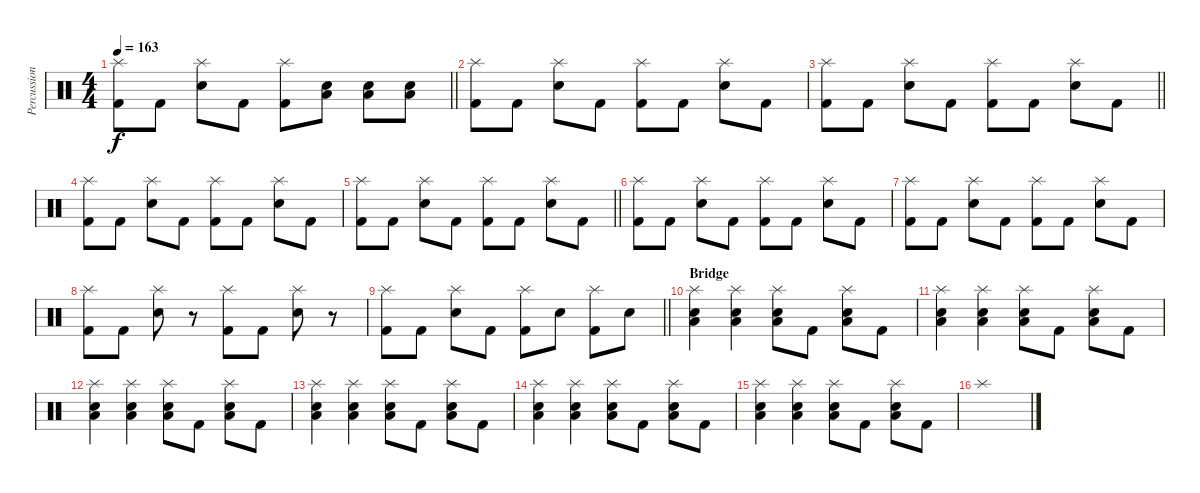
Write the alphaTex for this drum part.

\track ("Percussion" "Percussion") {solo instrument percussion}
\staff {score}
\articulation defaults
\ts (4 4)
\tempo 163
\clef neutral
\barLineRight lightlight
\ks c
("Splash (hit)" "Kick (hit) 2").8{dy f} "Kick (hit) 2".8 ("Splash (hit)" "Snare (hit) 2").8 "Kick (hit) 2".8 ("Splash (hit)" "Kick (hit) 2").8 ("Snare (hit) 2" "Low Floor Tom (hit)").8 ("Snare (hit) 2" "Low Floor Tom (hit)").8 ("Snare (hit) 2" "Low Floor Tom (hit)").8 |
("Splash (hit)" "Kick (hit) 2").8 "Kick (hit) 2".8 ("Splash (hit)" "Snare (hit) 2").8 "Kick (hit) 2".8 ("Splash (hit)" "Kick (hit) 2").8 "Kick (hit) 2".8 ("Splash (hit)" "Snare (hit) 2").8 "Kick (hit) 2".8 |
\barLineRight lightlight
("Splash (hit)" "Kick (hit) 2").8 "Kick (hit) 2".8 ("Splash (hit)" "Snare (hit) 2").8 "Kick (hit) 2".8 ("Splash (hit)" "Kick (hit) 2").8 "Kick (hit) 2".8 ("Splash (hit)" "Snare (hit) 2").8 "Kick (hit) 2".8 |
("Splash (hit)" "Kick (hit) 2").8 "Kick (hit) 2".8 ("Splash (hit)" "Snare (hit) 2").8 "Kick (hit) 2".8 ("Splash (hit)" "Kick (hit) 2").8 "Kick (hit) 2".8 ("Splash (hit)" "Snare (hit) 2").8 "Kick (hit) 2".8 |
\barLineRight lightlight
("Splash (hit)" "Kick (hit) 2").8 "Kick (hit) 2".8 ("Splash (hit)" "Snare (hit) 2").8 "Kick (hit) 2".8 ("Splash (hit)" "Kick (hit) 2").8 "Kick (hit) 2".8 ("Splash (hit)" "Snare (hit) 2").8 "Kick (hit) 2".8 |
("Splash (hit)" "Kick (hit) 2").8 "Kick (hit) 2".8 ("Splash (hit)" "Snare (hit) 2").8 "Kick (hit) 2".8 ("Splash (hit)" "Kick (hit) 2").8 "Kick (hit) 2".8 ("Splash (hit)" "Snare (hit) 2").8 "Kick (hit) 2".8 |
("Splash (hit)" "Kick (hit) 2").8 "Kick (hit) 2".8 ("Splash (hit)" "Snare (hit) 2").8 "Kick (hit) 2".8 ("Splash (hit)" "Kick (hit) 2").8 "Kick (hit) 2".8 ("Splash (hit)" "Snare (hit) 2").8 "Kick (hit) 2".8 |
("Splash (hit)" "Kick (hit) 2").8 "Kick (hit) 2".8 ("Splash (hit)" "Snare (hit) 2").8 r.8 ("Splash (hit)" "Kick (hit) 2").8 "Kick (hit) 2".8 ("Splash (hit)" "Snare (hit) 2").8 r.8 |
\barLineRight lightlight
("Splash (hit)" "Kick (hit) 2").8 "Kick (hit) 2".8 ("Splash (hit)" "Snare (hit) 2").8 "Kick (hit) 2".8 ("Splash (hit)" "Kick (hit) 2").8 "Snare (hit) 2".8 ("Splash (hit)" "Kick (hit) 2").8 "Snare (hit) 2".8 |
\section ("" "Bridge")
("Splash (hit)" "Low Tom (hit)" "Snare (hit) 2").4 ("Splash (hit)" "Low Tom (hit)" "Snare (hit) 2").4 ("Splash (hit)" "Low Tom (hit)" "Snare (hit) 2").8 "Kick (hit) 2".8 ("Splash (hit)" "Low Tom (hit)" "Snare (hit) 2").8 "Kick (hit) 2".8 |
("Splash (hit)" "Low Tom (hit)" "Snare (hit) 2").4 ("Splash (hit)" "Low Tom (hit)" "Snare (hit) 2").4 ("Splash (hit)" "Low Tom (hit)" "Snare (hit) 2").8 "Kick (hit) 2".8 ("Splash (hit)" "Low Tom (hit)" "Snare (hit) 2").8 "Kick (hit) 2".8 |
("Splash (hit)" "Low Tom (hit)" "Snare (hit) 2").4 ("Splash (hit)" "Low Tom (hit)" "Snare (hit) 2").4 ("Splash (hit)" "Low Tom (hit)" "Snare (hit) 2").8 "Kick (hit) 2".8 ("Splash (hit)" "Low Tom (hit)" "Snare (hit) 2").8 "Kick (hit) 2".8 |
("Splash (hit)" "Low Tom (hit)" "Snare (hit) 2").4 ("Splash (hit)" "Low Tom (hit)" "Snare (hit) 2").4 ("Splash (hit)" "Low Tom (hit)" "Snare (hit) 2").8 "Kick (hit) 2".8 ("Splash (hit)" "Low Tom (hit)" "Snare (hit) 2").8 "Kick (hit) 2".8 |
("Splash (hit)" "Low Tom (hit)" "Snare (hit) 2").4 ("Splash (hit)" "Low Tom (hit)" "Snare (hit) 2").4 ("Splash (hit)" "Low Tom (hit)" "Snare (hit) 2").8 "Kick (hit) 2".8 ("Splash (hit)" "Low Tom (hit)" "Snare (hit) 2").8 "Kick (hit) 2".8 |
("Splash (hit)" "Low Tom (hit)" "Snare (hit) 2").4 ("Splash (hit)" "Low Tom (hit)" "Snare (hit) 2").4 ("Splash (hit)" "Low Tom (hit)" "Snare (hit) 2").8 "Kick (hit) 2".8 ("Splash (hit)" "Low Tom (hit)" "Snare (hit) 2").8 "Kick (hit) 2".8 |
"Splash (hit)".1
